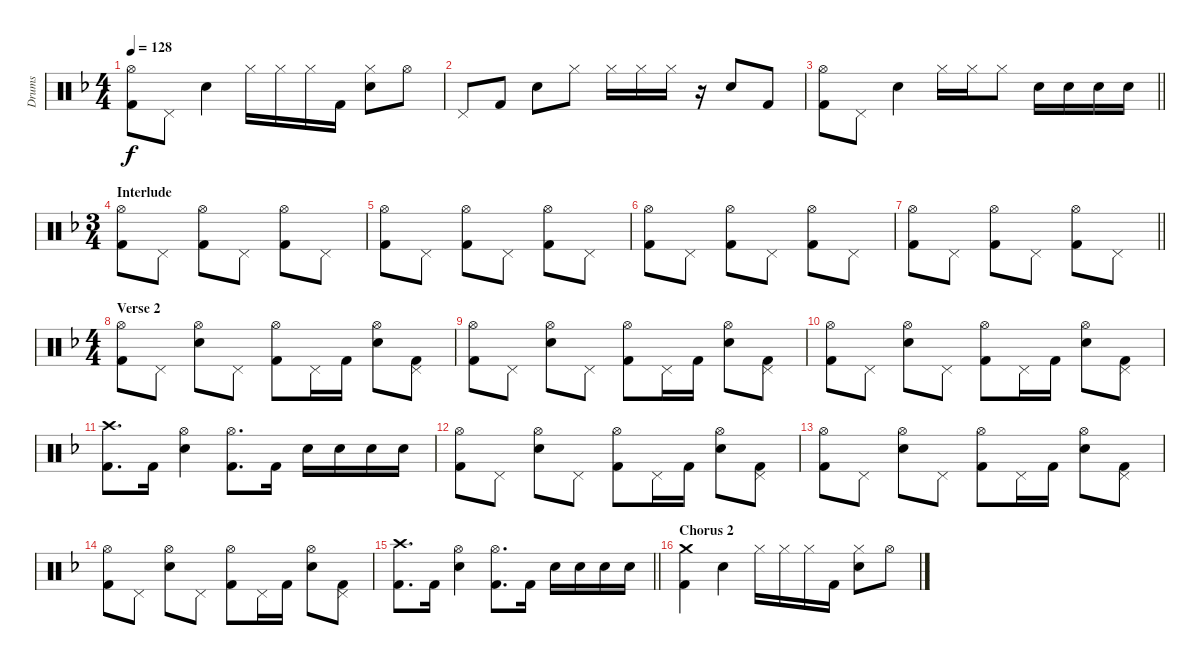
\track ("Drums" "Drums") {instrument percussion}
\staff {score}
\articulation defaults
\ts (4 4)
\tempo 128
\clef neutral
\ks f
("Hi-Hat (open)" "Kick (hit) 2").8{dy f} "Pedal Hi-Hat (hit)".8 "Electric Snare (hit)".4 "Hi-Hat (closed)".16 "Hi-Hat (closed)".16 "Hi-Hat (closed)".16 "Kick (hit) 2".16 ("Hi-Hat (closed)" "Electric Snare (hit)").8 "Hi-Hat (open)".8 |
"Pedal Hi-Hat (hit)".8 "Kick (hit) 2".8 "Electric Snare (hit)".8 "Hi-Hat (closed)".8 "Hi-Hat (closed)".16 "Hi-Hat (closed)".16 "Hi-Hat (closed)".16 r.16 "Electric Snare (hit)".8 "Kick (hit) 2".8 |
\barLineRight lightlight
("Hi-Hat (open)" "Kick (hit) 2").8 "Pedal Hi-Hat (hit)".8 "Electric Snare (hit)".4 "Hi-Hat (closed)".16 "Hi-Hat (closed)".16 "Hi-Hat (closed)".8 "Electric Snare (hit)".16 "Electric Snare (hit)".16 "Electric Snare (hit)".16 "Electric Snare (hit)".16 |
\ts (3 4)
\section ("" "Interlude")
("Hi-Hat (open)" "Kick (hit) 2").8 "Pedal Hi-Hat (hit)".8 ("Hi-Hat (open)" "Kick (hit) 2").8 "Pedal Hi-Hat (hit)".8 ("Hi-Hat (open)" "Kick (hit) 2").8 "Pedal Hi-Hat (hit)".8 |
("Hi-Hat (open)" "Kick (hit) 2").8 "Pedal Hi-Hat (hit)".8 ("Hi-Hat (open)" "Kick (hit) 2").8 "Pedal Hi-Hat (hit)".8 ("Hi-Hat (open)" "Kick (hit) 2").8 "Pedal Hi-Hat (hit)".8 |
("Hi-Hat (open)" "Kick (hit) 2").8 "Pedal Hi-Hat (hit)".8 ("Hi-Hat (open)" "Kick (hit) 2").8 "Pedal Hi-Hat (hit)".8 ("Hi-Hat (open)" "Kick (hit) 2").8 "Pedal Hi-Hat (hit)".8 |
\barLineRight lightlight
("Hi-Hat (open)" "Kick (hit) 2").8 "Pedal Hi-Hat (hit)".8 ("Hi-Hat (open)" "Kick (hit) 2").8 "Pedal Hi-Hat (hit)".8 ("Hi-Hat (open)" "Kick (hit) 2").8 "Pedal Hi-Hat (hit)".8 |
\ts (4 4)
\section ("" "Verse 2")
("Hi-Hat (open)" "Kick (hit) 2").8 "Pedal Hi-Hat (hit)".8 ("Hi-Hat (open)" "Electric Snare (hit)").8 "Pedal Hi-Hat (hit)".8 ("Hi-Hat (open)" "Kick (hit) 2").8 "Pedal Hi-Hat (hit)".16 "Kick (hit) 2".16 ("Hi-Hat (open)" "Electric Snare (hit)").8 ("Pedal Hi-Hat (hit)" "Kick (hit) 2").8 |
("Hi-Hat (open)" "Kick (hit) 2").8 "Pedal Hi-Hat (hit)".8 ("Hi-Hat (open)" "Electric Snare (hit)").8 "Pedal Hi-Hat (hit)".8 ("Hi-Hat (open)" "Kick (hit) 2").8 "Pedal Hi-Hat (hit)".16 "Kick (hit) 2".16 ("Hi-Hat (open)" "Electric Snare (hit)").8 ("Pedal Hi-Hat (hit)" "Kick (hit) 2").8 |
("Hi-Hat (open)" "Kick (hit) 2").8 "Pedal Hi-Hat (hit)".8 ("Hi-Hat (open)" "Electric Snare (hit)").8 "Pedal Hi-Hat (hit)".8 ("Hi-Hat (open)" "Kick (hit) 2").8 "Pedal Hi-Hat (hit)".16 "Kick (hit) 2".16 ("Hi-Hat (open)" "Electric Snare (hit)").8 ("Pedal Hi-Hat (hit)" "Kick (hit) 2").8 |
("Crash high (hit)" "Kick (hit) 2").8{d} "Kick (hit) 2".16 ("Hi-Hat (open)" "Electric Snare (hit)").4 ("Hi-Hat (open)" "Kick (hit) 2").8{d} "Kick (hit) 2".16 "Electric Snare (hit)".16 "Electric Snare (hit)".16 "Electric Snare (hit)".16 "Electric Snare (hit)".16 |
("Hi-Hat (open)" "Kick (hit) 2").8 "Pedal Hi-Hat (hit)".8 ("Hi-Hat (open)" "Electric Snare (hit)").8 "Pedal Hi-Hat (hit)".8 ("Hi-Hat (open)" "Kick (hit) 2").8 "Pedal Hi-Hat (hit)".16 "Kick (hit) 2".16 ("Hi-Hat (open)" "Electric Snare (hit)").8 ("Pedal Hi-Hat (hit)" "Kick (hit) 2").8 |
("Hi-Hat (open)" "Kick (hit) 2").8 "Pedal Hi-Hat (hit)".8 ("Hi-Hat (open)" "Electric Snare (hit)").8 "Pedal Hi-Hat (hit)".8 ("Hi-Hat (open)" "Kick (hit) 2").8 "Pedal Hi-Hat (hit)".16 "Kick (hit) 2".16 ("Hi-Hat (open)" "Electric Snare (hit)").8 ("Pedal Hi-Hat (hit)" "Kick (hit) 2").8 |
("Hi-Hat (open)" "Kick (hit) 2").8 "Pedal Hi-Hat (hit)".8 ("Hi-Hat (open)" "Electric Snare (hit)").8 "Pedal Hi-Hat (hit)".8 ("Hi-Hat (open)" "Kick (hit) 2").8 "Pedal Hi-Hat (hit)".16 "Kick (hit) 2".16 ("Hi-Hat (open)" "Electric Snare (hit)").8 ("Pedal Hi-Hat (hit)" "Kick (hit) 2").8 |
\barLineRight lightlight
("Crash high (hit)" "Kick (hit) 2").8{d} "Kick (hit) 2".16 ("Hi-Hat (open)" "Electric Snare (hit)").4 ("Hi-Hat (open)" "Kick (hit) 2").8{d} "Kick (hit) 2".16 "Electric Snare (hit)".16 "Electric Snare (hit)".16 "Electric Snare (hit)".16 "Electric Snare (hit)".16 |
\section ("" "Chorus 2")
("Crash medium (hit)" "Kick (hit) 2").4 "Electric Snare (hit)".4 "Hi-Hat (closed)".16 "Hi-Hat (closed)".16 "Hi-Hat (closed)".16 "Kick (hit) 2".16 ("Hi-Hat (closed)" "Electric Snare (hit)").8 "Hi-Hat (open)".8
